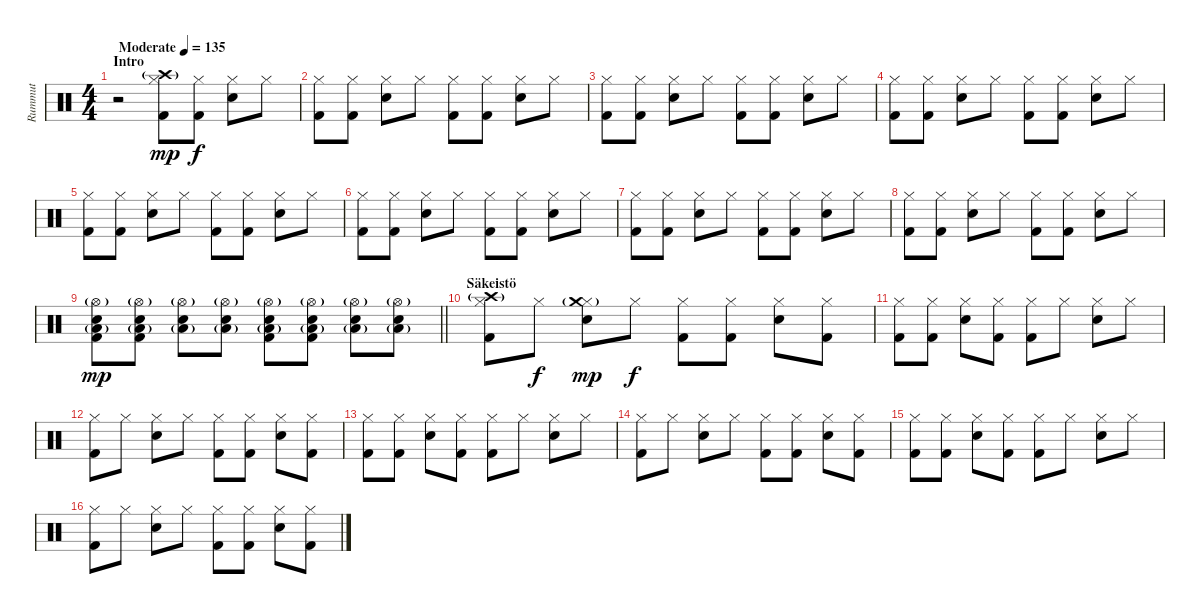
\track ("Rummut" "Rummut") {instrument percussion}
\staff {score}
\articulation defaults
\ts (4 4)
\section ("" "Intro")
\tempo (135 "Moderate")
\clef neutral
\ks c
r.2{dy mp} ("Crash high (hit)"{g} "Hi-Hat (closed)" "Kick (hit) 2").8 ("Hi-Hat (closed)" "Kick (hit) 2").8{dy f} ("Hi-Hat (closed)" "Snare (hit) 2").8 "Hi-Hat (closed)".8 |
("Hi-Hat (closed)" "Kick (hit) 2").8 ("Hi-Hat (closed)" "Kick (hit) 2").8 ("Hi-Hat (closed)" "Snare (hit) 2").8 "Hi-Hat (closed)".8 ("Hi-Hat (closed)" "Kick (hit) 2").8 ("Hi-Hat (closed)" "Kick (hit) 2").8 ("Hi-Hat (closed)" "Snare (hit) 2").8 "Hi-Hat (closed)".8 |
("Hi-Hat (closed)" "Kick (hit) 2").8 ("Hi-Hat (closed)" "Kick (hit) 2").8 ("Hi-Hat (closed)" "Snare (hit) 2").8 "Hi-Hat (closed)".8 ("Hi-Hat (closed)" "Kick (hit) 2").8 ("Hi-Hat (closed)" "Kick (hit) 2").8 ("Hi-Hat (closed)" "Snare (hit) 2").8 "Hi-Hat (closed)".8 |
("Hi-Hat (closed)" "Kick (hit) 2").8 ("Hi-Hat (closed)" "Kick (hit) 2").8 ("Hi-Hat (closed)" "Snare (hit) 2").8 "Hi-Hat (closed)".8 ("Hi-Hat (closed)" "Kick (hit) 2").8 ("Hi-Hat (closed)" "Kick (hit) 2").8 ("Hi-Hat (closed)" "Snare (hit) 2").8 "Hi-Hat (closed)".8 |
("Hi-Hat (closed)" "Kick (hit) 2").8 ("Hi-Hat (closed)" "Kick (hit) 2").8 ("Hi-Hat (closed)" "Snare (hit) 2").8 "Hi-Hat (closed)".8 ("Hi-Hat (closed)" "Kick (hit) 2").8 ("Hi-Hat (closed)" "Kick (hit) 2").8 ("Hi-Hat (closed)" "Snare (hit) 2").8 "Hi-Hat (closed)".8 |
("Hi-Hat (closed)" "Kick (hit) 2").8 ("Hi-Hat (closed)" "Kick (hit) 2").8 ("Hi-Hat (closed)" "Snare (hit) 2").8 "Hi-Hat (closed)".8 ("Hi-Hat (closed)" "Kick (hit) 2").8 ("Hi-Hat (closed)" "Kick (hit) 2").8 ("Hi-Hat (closed)" "Snare (hit) 2").8 "Hi-Hat (closed)".8 |
("Hi-Hat (closed)" "Kick (hit) 2").8 ("Hi-Hat (closed)" "Kick (hit) 2").8 ("Hi-Hat (closed)" "Snare (hit) 2").8 "Hi-Hat (closed)".8 ("Hi-Hat (closed)" "Kick (hit) 2").8 ("Hi-Hat (closed)" "Kick (hit) 2").8 ("Hi-Hat (closed)" "Snare (hit) 2").8 "Hi-Hat (closed)".8 |
("Hi-Hat (closed)" "Kick (hit) 2").8 ("Hi-Hat (closed)" "Kick (hit) 2").8 ("Hi-Hat (closed)" "Snare (hit) 2").8 "Hi-Hat (closed)".8 ("Hi-Hat (closed)" "Kick (hit) 2").8 ("Hi-Hat (closed)" "Kick (hit) 2").8 ("Hi-Hat (closed)" "Snare (hit) 2").8 "Hi-Hat (closed)".8 |
\barLineRight lightlight
("Low Tom (hit)"{g} "Snare (hit) 2" "Hi-Hat (open)"{g} "Kick (hit) 2").8{dy mp} ("Low Tom (hit)"{g} "Snare (hit) 2" "Hi-Hat (open)"{g} "Kick (hit) 2").8 ("Low Tom (hit)"{g} "Snare (hit) 2" "Hi-Hat (open)"{g}).8 ("Low Tom (hit)"{g} "Snare (hit) 2" "Hi-Hat (open)"{g}).8 ("Low Tom (hit)"{g} "Snare (hit) 2" "Hi-Hat (open)"{g} "Kick (hit) 2").8 ("Low Tom (hit)"{g} "Snare (hit) 2" "Hi-Hat (open)"{g} "Kick (hit) 2").8 ("Low Tom (hit)"{g} "Snare (hit) 2" "Hi-Hat (open)"{g}).8 ("Low Tom (hit)"{g} "Snare (hit) 2" "Hi-Hat (open)"{g}).8 |
\section ("" "Säkeistö")
("Hi-Hat (closed)" "Kick (hit) 2" "Crash high (hit)"{g}).8 "Hi-Hat (closed)".8{dy f} ("Hi-Hat (closed)" "Snare (hit) 2" "Crash medium (hit)"{g}).8{dy mp} "Hi-Hat (closed)".8{dy f} ("Hi-Hat (closed)" "Kick (hit) 2").8 ("Hi-Hat (closed)" "Kick (hit) 2").8 ("Hi-Hat (closed)" "Snare (hit) 2").8 ("Hi-Hat (closed)" "Kick (hit) 2").8 |
("Hi-Hat (closed)" "Kick (hit) 2").8 ("Hi-Hat (closed)" "Kick (hit) 2").8 ("Hi-Hat (closed)" "Snare (hit) 2").8 ("Hi-Hat (closed)" "Kick (hit) 2").8 ("Hi-Hat (closed)" "Kick (hit) 2").8 "Hi-Hat (closed)".8 ("Hi-Hat (closed)" "Snare (hit) 2").8 "Hi-Hat (closed)".8 |
("Hi-Hat (closed)" "Kick (hit) 2").8 "Hi-Hat (closed)".8 ("Hi-Hat (closed)" "Snare (hit) 2").8 "Hi-Hat (closed)".8 ("Hi-Hat (closed)" "Kick (hit) 2").8 ("Hi-Hat (closed)" "Kick (hit) 2").8 ("Hi-Hat (closed)" "Snare (hit) 2").8 ("Hi-Hat (closed)" "Kick (hit) 2").8 |
("Hi-Hat (closed)" "Kick (hit) 2").8 ("Hi-Hat (closed)" "Kick (hit) 2").8 ("Hi-Hat (closed)" "Snare (hit) 2").8 ("Hi-Hat (closed)" "Kick (hit) 2").8 ("Hi-Hat (closed)" "Kick (hit) 2").8 "Hi-Hat (closed)".8 ("Hi-Hat (closed)" "Snare (hit) 2").8 "Hi-Hat (closed)".8 |
("Hi-Hat (closed)" "Kick (hit) 2").8 "Hi-Hat (closed)".8 ("Hi-Hat (closed)" "Snare (hit) 2").8 "Hi-Hat (closed)".8 ("Hi-Hat (closed)" "Kick (hit) 2").8 ("Hi-Hat (closed)" "Kick (hit) 2").8 ("Hi-Hat (closed)" "Snare (hit) 2").8 ("Hi-Hat (closed)" "Kick (hit) 2").8 |
("Hi-Hat (closed)" "Kick (hit) 2").8 ("Hi-Hat (closed)" "Kick (hit) 2").8 ("Hi-Hat (closed)" "Snare (hit) 2").8 ("Hi-Hat (closed)" "Kick (hit) 2").8 ("Hi-Hat (closed)" "Kick (hit) 2").8 "Hi-Hat (closed)".8 ("Hi-Hat (closed)" "Snare (hit) 2").8 "Hi-Hat (closed)".8 |
("Hi-Hat (closed)" "Kick (hit) 2").8 "Hi-Hat (closed)".8 ("Hi-Hat (closed)" "Snare (hit) 2").8 "Hi-Hat (closed)".8 ("Hi-Hat (closed)" "Kick (hit) 2").8 ("Hi-Hat (closed)" "Kick (hit) 2").8 ("Hi-Hat (closed)" "Snare (hit) 2").8 ("Hi-Hat (closed)" "Kick (hit) 2").8
